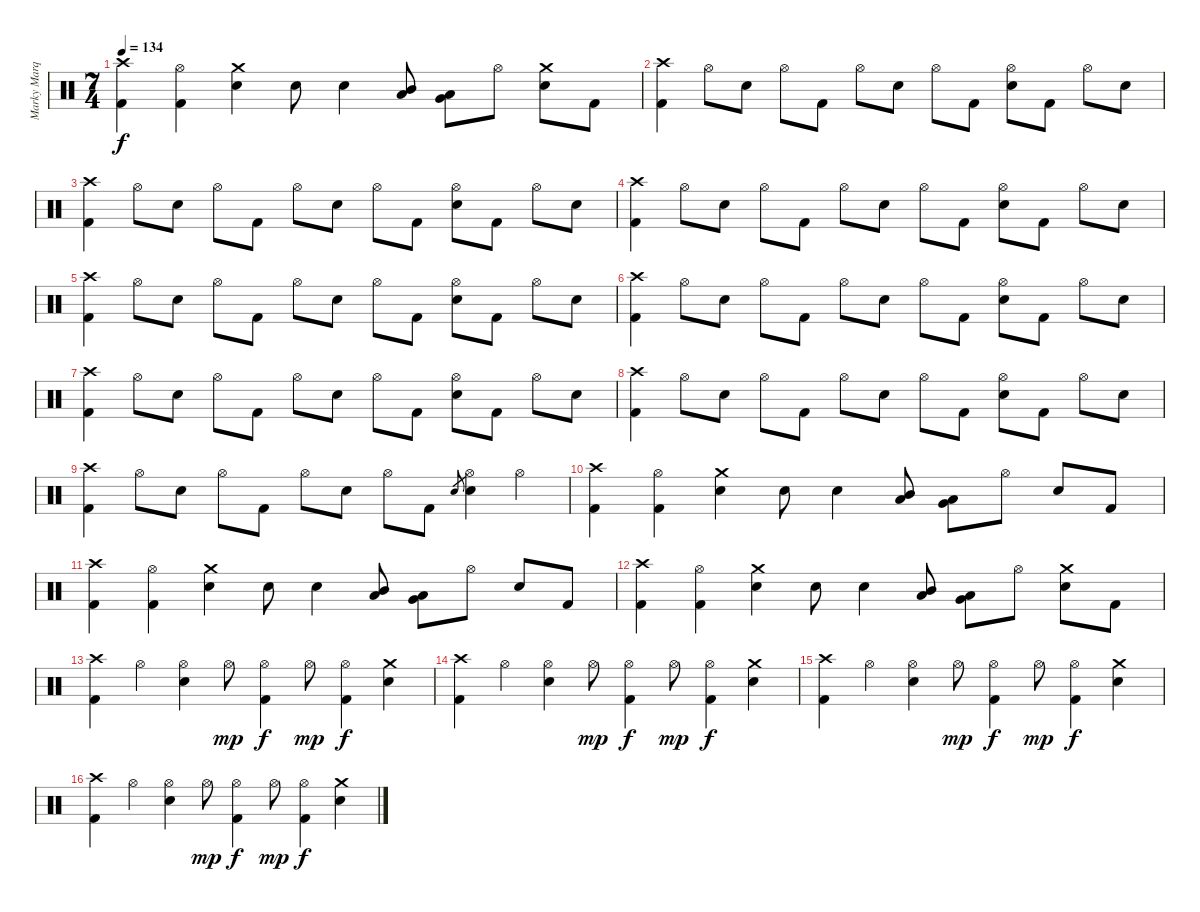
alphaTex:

\track ("Marky Marquis" "Marky Marq") {instrument percussion}
\staff {score}
\articulation defaults
\ts (7 4)
\tempo 134
\clef neutral
\ks c
("Crash high (hit)" "Kick (hit) 2").4{dy f} ("Hi-Hat (open)" "Kick (hit) 2").4 ("Crash medium (hit)" "Electric Snare (hit)").4 "Electric Snare (hit)".8 "Electric Snare (hit)".4 ("Mid Tom (hit)" "Low Tom (hit)").8 ("Low Tom (hit)" "Very Low Tom (hit)").8 "Hi-Hat (open)".8 ("Crash medium (hit)" "Electric Snare (hit)").8 "Kick (hit) 2".8 |
("Crash high (hit)" "Kick (hit) 2").4 "Hi-Hat (open)".8 "Electric Snare (hit)".8 "Hi-Hat (open)".8 "Kick (hit) 2".8 "Hi-Hat (open)".8 "Electric Snare (hit)".8 "Hi-Hat (open)".8 "Kick (hit) 2".8 ("Hi-Hat (open)" "Electric Snare (hit)").8 "Kick (hit) 2".8 "Hi-Hat (open)".8 "Electric Snare (hit)".8 |
("Crash high (hit)" "Kick (hit) 2").4 "Hi-Hat (open)".8 "Electric Snare (hit)".8 "Hi-Hat (open)".8 "Kick (hit) 2".8 "Hi-Hat (open)".8 "Electric Snare (hit)".8 "Hi-Hat (open)".8 "Kick (hit) 2".8 ("Hi-Hat (open)" "Electric Snare (hit)").8 "Kick (hit) 2".8 "Hi-Hat (open)".8 "Electric Snare (hit)".8 |
("Crash high (hit)" "Kick (hit) 2").4 "Hi-Hat (open)".8 "Electric Snare (hit)".8 "Hi-Hat (open)".8 "Kick (hit) 2".8 "Hi-Hat (open)".8 "Electric Snare (hit)".8 "Hi-Hat (open)".8 "Kick (hit) 2".8 ("Hi-Hat (open)" "Electric Snare (hit)").8 "Kick (hit) 2".8 "Hi-Hat (open)".8 "Electric Snare (hit)".8 |
("Crash high (hit)" "Kick (hit) 2").4 "Hi-Hat (open)".8 "Electric Snare (hit)".8 "Hi-Hat (open)".8 "Kick (hit) 2".8 "Hi-Hat (open)".8 "Electric Snare (hit)".8 "Hi-Hat (open)".8 "Kick (hit) 2".8 ("Hi-Hat (open)" "Electric Snare (hit)").8 "Kick (hit) 2".8 "Hi-Hat (open)".8 "Electric Snare (hit)".8 |
("Crash high (hit)" "Kick (hit) 2").4 "Hi-Hat (open)".8 "Electric Snare (hit)".8 "Hi-Hat (open)".8 "Kick (hit) 2".8 "Hi-Hat (open)".8 "Electric Snare (hit)".8 "Hi-Hat (open)".8 "Kick (hit) 2".8 ("Hi-Hat (open)" "Electric Snare (hit)").8 "Kick (hit) 2".8 "Hi-Hat (open)".8 "Electric Snare (hit)".8 |
("Crash high (hit)" "Kick (hit) 2").4 "Hi-Hat (open)".8 "Electric Snare (hit)".8 "Hi-Hat (open)".8 "Kick (hit) 2".8 "Hi-Hat (open)".8 "Electric Snare (hit)".8 "Hi-Hat (open)".8 "Kick (hit) 2".8 ("Hi-Hat (open)" "Electric Snare (hit)").8 "Kick (hit) 2".8 "Hi-Hat (open)".8 "Electric Snare (hit)".8 |
("Crash high (hit)" "Kick (hit) 2").4 "Hi-Hat (open)".8 "Electric Snare (hit)".8 "Hi-Hat (open)".8 "Kick (hit) 2".8 "Hi-Hat (open)".8 "Electric Snare (hit)".8 "Hi-Hat (open)".8 "Kick (hit) 2".8 ("Hi-Hat (open)" "Electric Snare (hit)").8 "Kick (hit) 2".8 "Hi-Hat (open)".8 "Electric Snare (hit)".8 |
("Crash high (hit)" "Kick (hit) 2").4 "Hi-Hat (open)".8 "Electric Snare (hit)".8 "Hi-Hat (open)".8 "Kick (hit) 2".8 "Hi-Hat (open)".8 "Electric Snare (hit)".8 "Hi-Hat (open)".8 "Kick (hit) 2".8 "Electric Snare (hit)".8{gr} ("Hi-Hat (open)" "Electric Snare (hit)").4 "Hi-Hat (open)".4 |
("Crash high (hit)" "Kick (hit) 2").4 ("Hi-Hat (open)" "Kick (hit) 2").4 ("Crash medium (hit)" "Electric Snare (hit)").4 "Electric Snare (hit)".8 "Electric Snare (hit)".4 ("Mid Tom (hit)" "Low Tom (hit)").8 ("Low Tom (hit)" "Very Low Tom (hit)").8 "Hi-Hat (open)".8 "Electric Snare (hit)".8 "Kick (hit) 2".8 |
("Crash high (hit)" "Kick (hit) 2").4 ("Hi-Hat (open)" "Kick (hit) 2").4 ("Crash medium (hit)" "Electric Snare (hit)").4 "Electric Snare (hit)".8 "Electric Snare (hit)".4 ("Mid Tom (hit)" "Low Tom (hit)").8 ("Low Tom (hit)" "Very Low Tom (hit)").8 "Hi-Hat (open)".8 "Electric Snare (hit)".8 "Kick (hit) 2".8 |
("Crash high (hit)" "Kick (hit) 2").4 ("Hi-Hat (open)" "Kick (hit) 2").4 ("Crash medium (hit)" "Electric Snare (hit)").4 "Electric Snare (hit)".8 "Electric Snare (hit)".4 ("Mid Tom (hit)" "Low Tom (hit)").8 ("Low Tom (hit)" "Very Low Tom (hit)").8 "Hi-Hat (open)".8 ("Crash medium (hit)" "Electric Snare (hit)").8 "Kick (hit) 2".8 |
("Crash high (hit)" "Kick (hit) 2").4 "Hi-Hat (open)".4 ("Hi-Hat (open)" "Electric Snare (hit)").4 "Hi-Hat (open)".8{dy mp} ("Hi-Hat (open)" "Kick (hit) 2").4{dy f} "Hi-Hat (open)".8{dy mp} ("Hi-Hat (open)" "Kick (hit) 2").4{dy f} ("Crash medium (hit)" "Electric Snare (hit)").4 |
("Crash high (hit)" "Kick (hit) 2").4 "Hi-Hat (open)".4 ("Hi-Hat (open)" "Electric Snare (hit)").4 "Hi-Hat (open)".8{dy mp} ("Hi-Hat (open)" "Kick (hit) 2").4{dy f} "Hi-Hat (open)".8{dy mp} ("Hi-Hat (open)" "Kick (hit) 2").4{dy f} ("Crash medium (hit)" "Electric Snare (hit)").4 |
("Crash high (hit)" "Kick (hit) 2").4 "Hi-Hat (open)".4 ("Hi-Hat (open)" "Electric Snare (hit)").4 "Hi-Hat (open)".8{dy mp} ("Hi-Hat (open)" "Kick (hit) 2").4{dy f} "Hi-Hat (open)".8{dy mp} ("Hi-Hat (open)" "Kick (hit) 2").4{dy f} ("Crash medium (hit)" "Electric Snare (hit)").4 |
("Crash high (hit)" "Kick (hit) 2").4 "Hi-Hat (open)".4 ("Hi-Hat (open)" "Electric Snare (hit)").4 "Hi-Hat (open)".8{dy mp} ("Hi-Hat (open)" "Kick (hit) 2").4{dy f} "Hi-Hat (open)".8{dy mp} ("Hi-Hat (open)" "Kick (hit) 2").4{dy f} ("Crash medium (hit)" "Electric Snare (hit)").4
